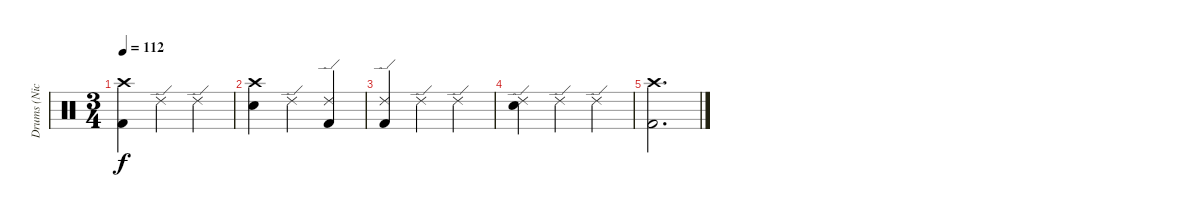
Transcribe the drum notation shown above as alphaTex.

\track ("Drums (Nick Mason)" "Drums (Nic") {instrument percussion}
\staff {score}
\articulation defaults
\ts (3 4)
\tempo 112
\clef neutral
\ks c
("Crash high (hit)" "Kick (hit) 2").4{dy f} "Ride (edge) 2".4 "Ride (edge) 2".4 |
("Crash high (hit)" "Electric Snare (hit)").4 "Ride (edge) 2".4 ("Ride (edge) 2" "Kick (hit) 2").4 |
("Ride (edge) 2" "Kick (hit) 2").4 "Ride (edge) 2".4 "Ride (edge) 2".4 |
("Ride (edge) 2" "Electric Snare (hit)").4 "Ride (edge) 2".4 "Ride (edge) 2".4 |
("Crash high (hit)" "Kick (hit) 2").2{d}
